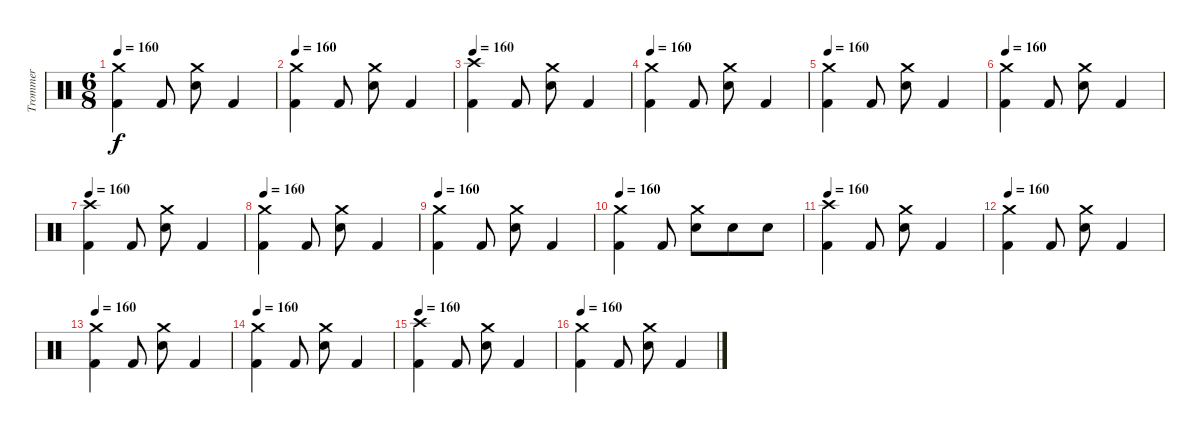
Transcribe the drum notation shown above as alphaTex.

\track ("Trommer" "Trommer") {instrument percussion}
\staff {score}
\articulation defaults
\ts (6 8)
\tempo 160
\clef neutral
\ks c
("Kick (hit) 2" "Crash medium (hit)").4{dy f} "Kick (hit) 2".8 ("Snare (hit) 2" "Crash medium (hit)").8 "Kick (hit) 2".4 |
\tempo 160
("Kick (hit) 2" "Crash medium (hit)").4 "Kick (hit) 2".8 ("Snare (hit) 2" "Crash medium (hit)").8 "Kick (hit) 2".4 |
\tempo 160
("Kick (hit) 2" "Crash high (hit)").4 "Kick (hit) 2".8 ("Snare (hit) 2" "Crash medium (hit)").8 "Kick (hit) 2".4 |
\tempo 160
("Kick (hit) 2" "Crash medium (hit)").4 "Kick (hit) 2".8 ("Snare (hit) 2" "Crash medium (hit)").8 "Kick (hit) 2".4 |
\tempo 160
("Kick (hit) 2" "Crash medium (hit)").4 "Kick (hit) 2".8 ("Snare (hit) 2" "Crash medium (hit)").8 "Kick (hit) 2".4 |
\tempo 160
("Kick (hit) 2" "Crash medium (hit)").4 "Kick (hit) 2".8 ("Snare (hit) 2" "Crash medium (hit)").8 "Kick (hit) 2".4 |
\tempo 160
("Kick (hit) 2" "Crash high (hit)").4 "Kick (hit) 2".8 ("Snare (hit) 2" "Crash medium (hit)").8 "Kick (hit) 2".4 |
\tempo 160
("Kick (hit) 2" "Crash medium (hit)").4 "Kick (hit) 2".8 ("Snare (hit) 2" "Crash medium (hit)").8 "Kick (hit) 2".4 |
\tempo 160
("Kick (hit) 2" "Crash medium (hit)").4 "Kick (hit) 2".8 ("Snare (hit) 2" "Crash medium (hit)").8 "Kick (hit) 2".4 |
\tempo 160
("Kick (hit) 2" "Crash medium (hit)").4 "Kick (hit) 2".8 ("Snare (hit) 2" "Crash medium (hit)").8 "Snare (hit) 2".8 "Snare (hit) 2".8 |
\tempo 160
("Kick (hit) 2" "Crash high (hit)").4 "Kick (hit) 2".8 ("Snare (hit) 2" "Crash medium (hit)").8 "Kick (hit) 2".4 |
\tempo 160
("Kick (hit) 2" "Crash medium (hit)").4 "Kick (hit) 2".8 ("Snare (hit) 2" "Crash medium (hit)").8 "Kick (hit) 2".4 |
\tempo 160
("Kick (hit) 2" "Crash medium (hit)").4 "Kick (hit) 2".8 ("Snare (hit) 2" "Crash medium (hit)").8 "Kick (hit) 2".4 |
\tempo 160
("Kick (hit) 2" "Crash medium (hit)").4 "Kick (hit) 2".8 ("Snare (hit) 2" "Crash medium (hit)").8 "Kick (hit) 2".4 |
\tempo 160
("Kick (hit) 2" "Crash high (hit)").4 "Kick (hit) 2".8 ("Snare (hit) 2" "Crash medium (hit)").8 "Kick (hit) 2".4 |
\tempo 160
("Kick (hit) 2" "Crash medium (hit)").4 "Kick (hit) 2".8 ("Snare (hit) 2" "Crash medium (hit)").8 "Kick (hit) 2".4
